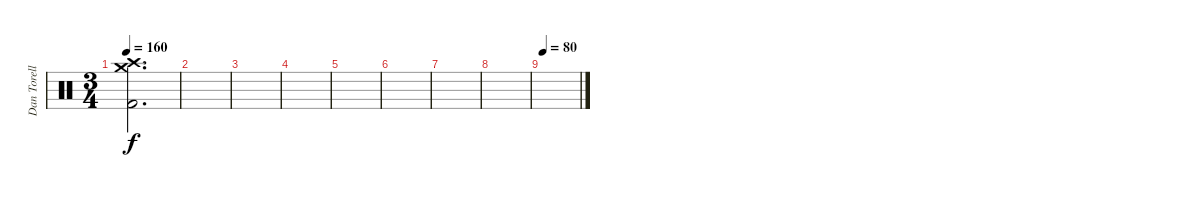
\track ("Dan Torelli - Drums" "Dan Torell") {instrument percussion}
\staff {score}
\articulation defaults
\ts (3 4)
\tempo 160
\clef neutral
\ks c
("Crash high (hit)" "Crash medium (hit)" "Kick (hit) 2").2{d dy f} |
|
|
|
|
|
|
|
\tempo 80
